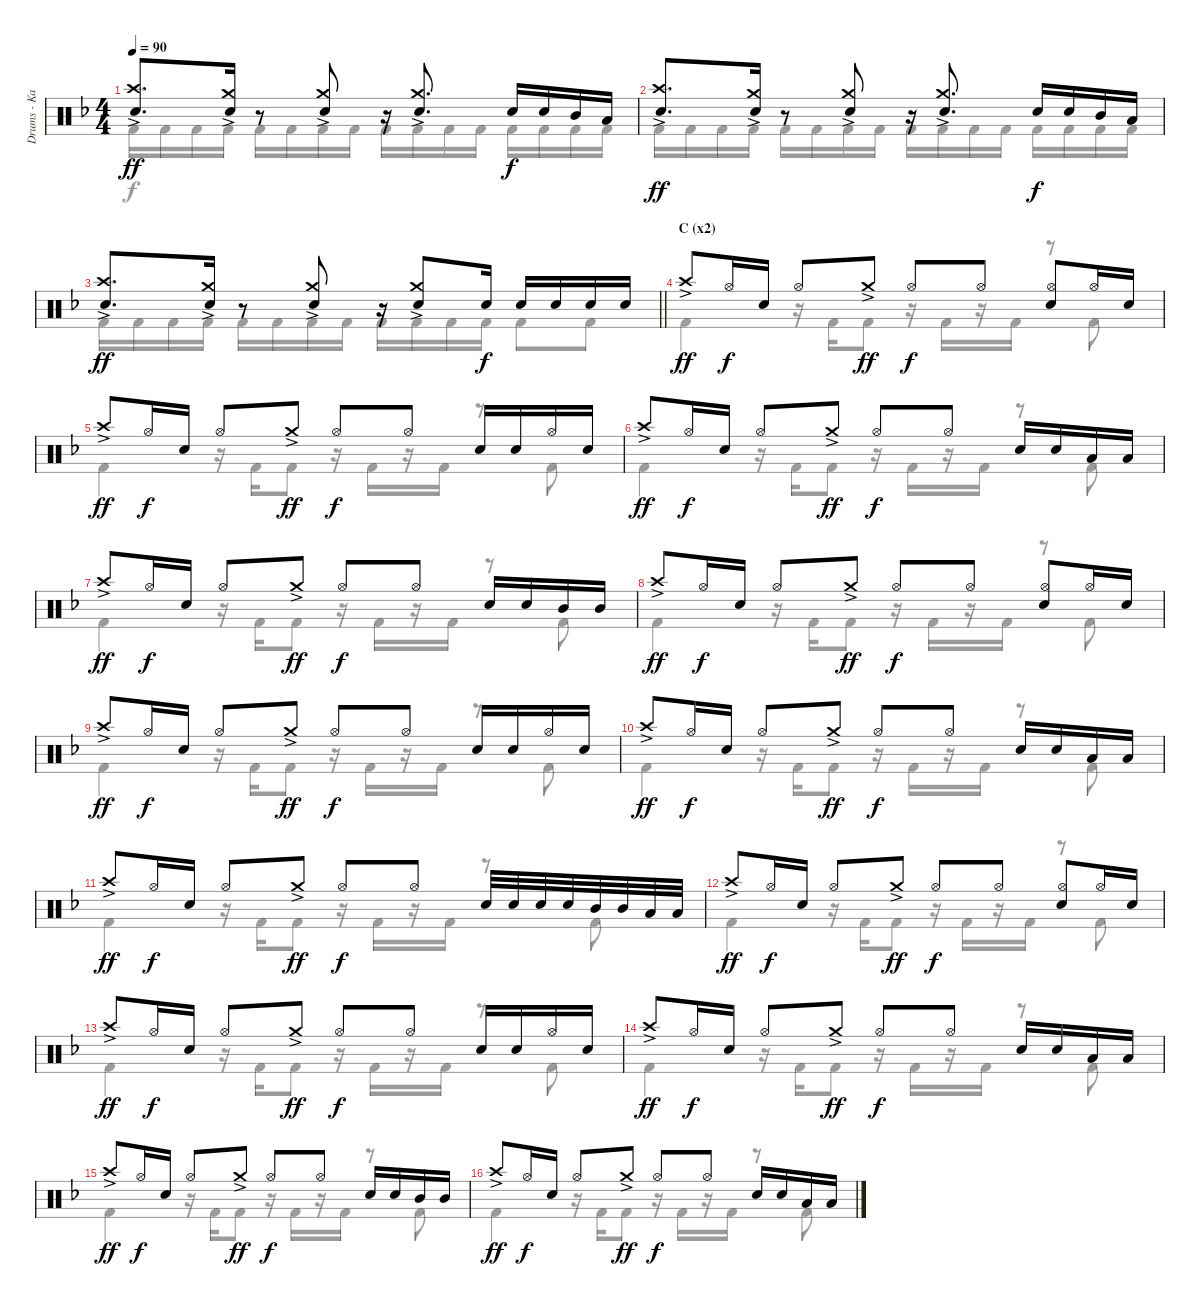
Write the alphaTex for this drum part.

\track ("Drums - Kai" "Drums - Ka") {instrument percussion}
\staff {score}
\articulation defaults
\voice
\ts (4 4)
\tempo 90
\clef neutral
\ks f
("Crash high (hit)"{ac} "Snare (hit) 2").8{d dy ff} ("Crash medium (hit)"{ac} "Snare (hit) 2").16 r.8 ("Crash medium (hit)"{ac} "Snare (hit) 2").8 r.16 ("Crash medium (hit)"{ac} "Snare (hit) 2").8{d} "Snare (hit) 2".16{dy f} "Snare (hit) 2".16 "Mid Tom (hit)".16 "Low Tom (hit)".16 |
("Crash high (hit)"{ac} "Snare (hit) 2").8{d dy ff} ("Crash medium (hit)"{ac} "Snare (hit) 2").16 r.8 ("Crash medium (hit)"{ac} "Snare (hit) 2").8 r.16 ("Crash medium (hit)"{ac} "Snare (hit) 2").8{d} "Snare (hit) 2".16{dy f} "Snare (hit) 2".16 "Mid Tom (hit)".16 "Low Tom (hit)".16 |
\barLineRight lightlight
("Crash high (hit)"{ac} "Snare (hit) 2").8{d dy ff} ("Crash medium (hit)"{ac} "Snare (hit) 2").16 r.8 ("Crash medium (hit)"{ac} "Snare (hit) 2").8 r.16 ("Crash medium (hit)"{ac} "Snare (hit) 2").8 "Snare (hit) 2".16{dy f} "Snare (hit) 2".16 "Snare (hit) 2".16 "Snare (hit) 2".16 "Snare (hit) 2".16 |
\section ("" "C (x2)")
"Crash high (hit)"{ac}.8{dy ff} "Hi-Hat (open)".16{dy f} "Snare (hit) 2".16 "Hi-Hat (open)".8 "Crash medium (hit)"{ac}.8{dy ff} "Hi-Hat (open)".8{dy f} "Hi-Hat (open)".8 ("Hi-Hat (open)" "Snare (hit) 2").8 "Hi-Hat (open)".16 "Snare (hit) 2".16 |
"Crash high (hit)"{ac}.8{dy ff} "Hi-Hat (open)".16{dy f} "Snare (hit) 2".16 "Hi-Hat (open)".8 "Crash medium (hit)"{ac}.8{dy ff} "Hi-Hat (open)".8{dy f} "Hi-Hat (open)".8 "Snare (hit) 2".16 "Snare (hit) 2".16 "Hi-Hat (open)".16 "Snare (hit) 2".16 |
"Crash high (hit)"{ac}.8{dy ff} "Hi-Hat (open)".16{dy f} "Snare (hit) 2".16 "Hi-Hat (open)".8 "Crash medium (hit)"{ac}.8{dy ff} "Hi-Hat (open)".8{dy f} "Hi-Hat (open)".8 "Snare (hit) 2".16 "Snare (hit) 2".16 "Low Tom (hit)".16 "Low Tom (hit)".16 |
"Crash high (hit)"{ac}.8{dy ff} "Hi-Hat (open)".16{dy f} "Snare (hit) 2".16 "Hi-Hat (open)".8 "Crash medium (hit)"{ac}.8{dy ff} "Hi-Hat (open)".8{dy f} "Hi-Hat (open)".8 "Snare (hit) 2".16 "Snare (hit) 2".16 "Mid Tom (hit)".16 "Mid Tom (hit)".16 |
"Crash high (hit)"{ac}.8{dy ff} "Hi-Hat (open)".16{dy f} "Snare (hit) 2".16 "Hi-Hat (open)".8 "Crash medium (hit)"{ac}.8{dy ff} "Hi-Hat (open)".8{dy f} "Hi-Hat (open)".8 ("Hi-Hat (open)" "Snare (hit) 2").8 "Hi-Hat (open)".16 "Snare (hit) 2".16 |
"Crash high (hit)"{ac}.8{dy ff} "Hi-Hat (open)".16{dy f} "Snare (hit) 2".16 "Hi-Hat (open)".8 "Crash medium (hit)"{ac}.8{dy ff} "Hi-Hat (open)".8{dy f} "Hi-Hat (open)".8 "Snare (hit) 2".16 "Snare (hit) 2".16 "Hi-Hat (open)".16 "Snare (hit) 2".16 |
"Crash high (hit)"{ac}.8{dy ff} "Hi-Hat (open)".16{dy f} "Snare (hit) 2".16 "Hi-Hat (open)".8 "Crash medium (hit)"{ac}.8{dy ff} "Hi-Hat (open)".8{dy f} "Hi-Hat (open)".8 "Snare (hit) 2".16 "Snare (hit) 2".16 "Low Tom (hit)".16 "Low Tom (hit)".16 |
"Crash high (hit)"{ac}.8{dy ff} "Hi-Hat (open)".16{dy f} "Snare (hit) 2".16 "Hi-Hat (open)".8 "Crash medium (hit)"{ac}.8{dy ff} "Hi-Hat (open)".8{dy f} "Hi-Hat (open)".8 "Snare (hit) 2".32 "Snare (hit) 2".32 "Snare (hit) 2".32 "Snare (hit) 2".32 "Mid Tom (hit)".32 "Mid Tom (hit)".32 "Low Tom (hit)".32 "Low Tom (hit)".32 |
"Crash high (hit)"{ac}.8{dy ff} "Hi-Hat (open)".16{dy f} "Snare (hit) 2".16 "Hi-Hat (open)".8 "Crash medium (hit)"{ac}.8{dy ff} "Hi-Hat (open)".8{dy f} "Hi-Hat (open)".8 ("Hi-Hat (open)" "Snare (hit) 2").8 "Hi-Hat (open)".16 "Snare (hit) 2".16 |
"Crash high (hit)"{ac}.8{dy ff} "Hi-Hat (open)".16{dy f} "Snare (hit) 2".16 "Hi-Hat (open)".8 "Crash medium (hit)"{ac}.8{dy ff} "Hi-Hat (open)".8{dy f} "Hi-Hat (open)".8 "Snare (hit) 2".16 "Snare (hit) 2".16 "Hi-Hat (open)".16 "Snare (hit) 2".16 |
"Crash high (hit)"{ac}.8{dy ff} "Hi-Hat (open)".16{dy f} "Snare (hit) 2".16 "Hi-Hat (open)".8 "Crash medium (hit)"{ac}.8{dy ff} "Hi-Hat (open)".8{dy f} "Hi-Hat (open)".8 "Snare (hit) 2".16 "Snare (hit) 2".16 "Low Tom (hit)".16 "Low Tom (hit)".16 |
"Crash high (hit)"{ac}.8{dy ff} "Hi-Hat (open)".16{dy f} "Snare (hit) 2".16 "Hi-Hat (open)".8 "Crash medium (hit)"{ac}.8{dy ff} "Hi-Hat (open)".8{dy f} "Hi-Hat (open)".8 "Snare (hit) 2".16 "Snare (hit) 2".16 "Mid Tom (hit)".16 "Mid Tom (hit)".16 |
"Crash high (hit)"{ac}.8{dy ff} "Hi-Hat (open)".16{dy f} "Snare (hit) 2".16 "Hi-Hat (open)".8 "Crash medium (hit)"{ac}.8{dy ff} "Hi-Hat (open)".8{dy f} "Hi-Hat (open)".8 "Snare (hit) 2".16 "Snare (hit) 2".16 "Low Tom (hit)".16 "Low Tom (hit)".16
\voice
\clef neutral
\ottava regular
\simile none
\ks f "Kick (hit) 2".16{dy f} "Kick (hit) 2".16 "Kick (hit) 2".16 "Kick (hit) 2".16 "Kick (hit) 2".16 "Kick (hit) 2".16 "Kick (hit) 2".16 "Kick (hit) 2".16 "Kick (hit) 2".16 "Kick (hit) 2".16 "Kick (hit) 2".16 "Kick (hit) 2".16 "Kick (hit) 2".16 "Kick (hit) 2".16 "Kick (hit) 2".16 "Kick (hit) 2".16
|
"Kick (hit) 2".16 "Kick (hit) 2".16 "Kick (hit) 2".16 "Kick (hit) 2".16 "Kick (hit) 2".16 "Kick (hit) 2".16 "Kick (hit) 2".16 "Kick (hit) 2".16 "Kick (hit) 2".16 "Kick (hit) 2".16 "Kick (hit) 2".16 "Kick (hit) 2".16 "Kick (hit) 2".16 "Kick (hit) 2".16 "Kick (hit) 2".16 "Kick (hit) 2".16 |
\barLineRight lightlight "Kick (hit) 2".16 "Kick (hit) 2".16 "Kick (hit) 2".16 "Kick (hit) 2".16 "Kick (hit) 2".16 "Kick (hit) 2".16 "Kick (hit) 2".16 "Kick (hit) 2".16 "Kick (hit) 2".16 "Kick (hit) 2".16 "Kick (hit) 2".16 "Kick (hit) 2".16 "Kick (hit) 2".8 "Kick (hit) 2".8
|
"Kick (hit) 2".4 r.16 "Kick (hit) 2".16 "Kick (hit) 2".8 r.16 "Kick (hit) 2".16 r.16 "Kick (hit) 2".16 r.8 "Kick (hit) 2".8 |
"Kick (hit) 2".4 r.16 "Kick (hit) 2".16 "Kick (hit) 2".8 r.16 "Kick (hit) 2".16 r.16 "Kick (hit) 2".16 r.8 "Kick (hit) 2".8 |
"Kick (hit) 2".4 r.16 "Kick (hit) 2".16 "Kick (hit) 2".8 r.16 "Kick (hit) 2".16 r.16 "Kick (hit) 2".16 r.8 "Kick (hit) 2".8 |
"Kick (hit) 2".4 r.16 "Kick (hit) 2".16 "Kick (hit) 2".8 r.16 "Kick (hit) 2".16 r.16 "Kick (hit) 2".16 r.8 "Kick (hit) 2".8 |
"Kick (hit) 2".4 r.16 "Kick (hit) 2".16 "Kick (hit) 2".8 r.16 "Kick (hit) 2".16 r.16 "Kick (hit) 2".16 r.8 "Kick (hit) 2".8 |
"Kick (hit) 2".4 r.16 "Kick (hit) 2".16 "Kick (hit) 2".8 r.16 "Kick (hit) 2".16 r.16 "Kick (hit) 2".16 r.8 "Kick (hit) 2".8 |
"Kick (hit) 2".4 r.16 "Kick (hit) 2".16 "Kick (hit) 2".8 r.16 "Kick (hit) 2".16 r.16 "Kick (hit) 2".16 r.8 "Kick (hit) 2".8 |
"Kick (hit) 2".4 r.16 "Kick (hit) 2".16 "Kick (hit) 2".8 r.16 "Kick (hit) 2".16 r.16 "Kick (hit) 2".16 r.8 "Kick (hit) 2".8 |
"Kick (hit) 2".4 r.16 "Kick (hit) 2".16 "Kick (hit) 2".8 r.16 "Kick (hit) 2".16 r.16 "Kick (hit) 2".16 r.8 "Kick (hit) 2".8 |
"Kick (hit) 2".4 r.16 "Kick (hit) 2".16 "Kick (hit) 2".8 r.16 "Kick (hit) 2".16 r.16 "Kick (hit) 2".16 r.8 "Kick (hit) 2".8 |
"Kick (hit) 2".4 r.16 "Kick (hit) 2".16 "Kick (hit) 2".8 r.16 "Kick (hit) 2".16 r.16 "Kick (hit) 2".16 r.8 "Kick (hit) 2".8 |
"Kick (hit) 2".4 r.16 "Kick (hit) 2".16 "Kick (hit) 2".8 r.16 "Kick (hit) 2".16 r.16 "Kick (hit) 2".16 r.8 "Kick (hit) 2".8 |
"Kick (hit) 2".4 r.16 "Kick (hit) 2".16 "Kick (hit) 2".8 r.16 "Kick (hit) 2".16 r.16 "Kick (hit) 2".16 r.8 "Kick (hit) 2".8
